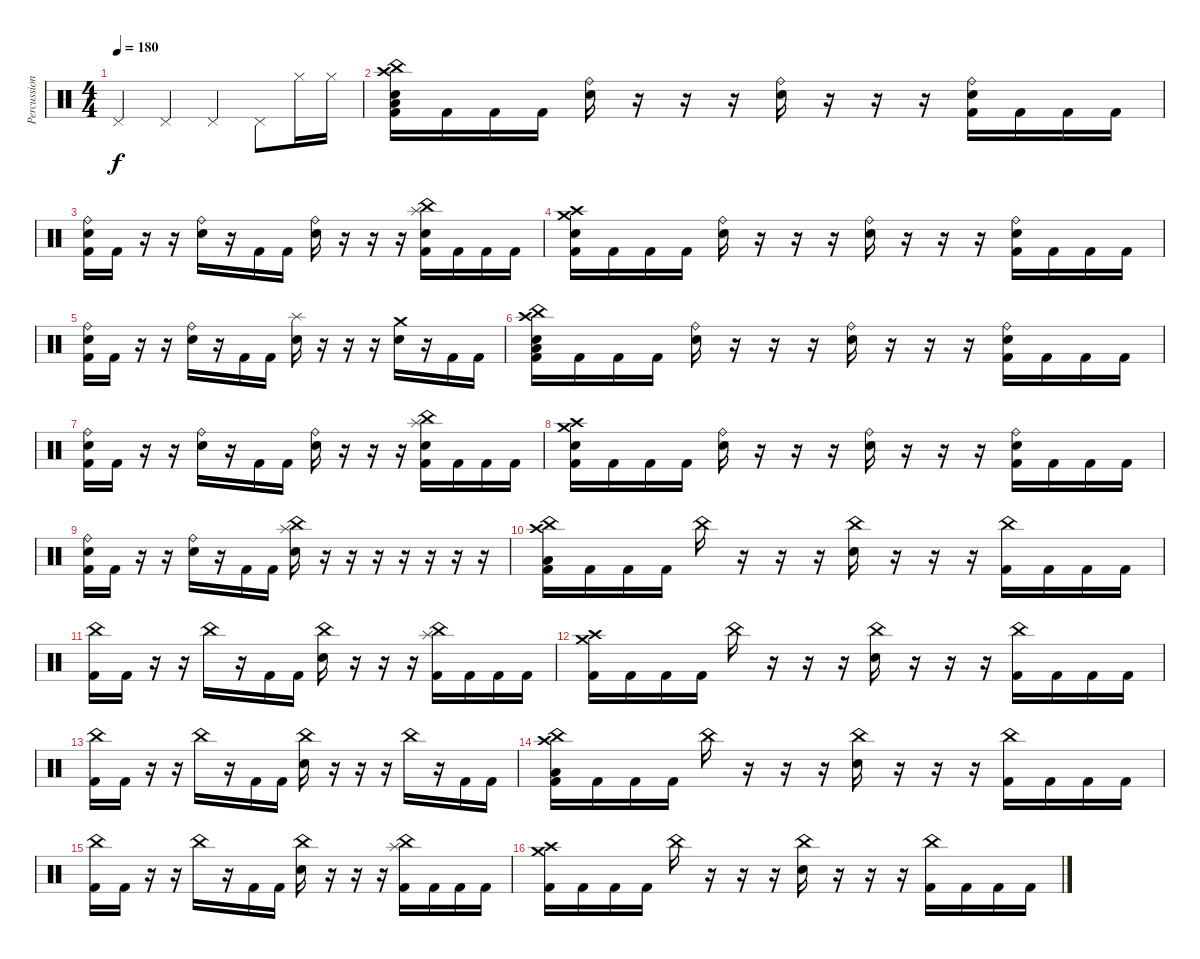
\track ("Percussion" "Percussion") {instrument percussion}
\staff {score}
\articulation defaults
\ts (4 4)
\tempo 180
\clef neutral
\ks c "Pedal Hi-Hat (hit)".4{dy f} "Pedal Hi-Hat (hit)".4 "Pedal Hi-Hat (hit)".4 "Pedal Hi-Hat (hit)".8 "Hi-Hat (closed)".16 "Hi-Hat (closed)".16
|
("Crash high (hit)" "China (hit)" "Electric Snare (hit)" "Low Floor Tom (hit)" "Kick (hit) 2").16 "Kick (hit) 2".16 "Kick (hit) 2".16 "Kick (hit) 2".16 ("Ride (bell)" "Electric Snare (hit)").16 r.16 r.16 r.16 ("Ride (bell)" "Electric Snare (hit)").16 r.16 r.16 r.16 ("Ride (bell)" "Electric Snare (hit)" "Kick (hit) 2").16 "Kick (hit) 2".16 "Kick (hit) 2".16 "Kick (hit) 2".16 |
("Ride (bell)" "Electric Snare (hit)" "Kick (hit) 2").16 "Kick (hit) 2".16 r.16 r.16 ("Ride (bell)" "Electric Snare (hit)").16 r.16 "Kick (hit) 2".16 "Kick (hit) 2".16 ("Ride (bell)" "Electric Snare (hit)").16 r.16 r.16 r.16 ("Splash (hit)" "China (hit)" "Electric Snare (hit)" "Kick (hit) 2").16 "Kick (hit) 2".16 "Kick (hit) 2".16 "Kick (hit) 2".16 |
("Crash high (hit)" "Crash medium (hit)" "Electric Snare (hit)" "Kick (hit) 2").16 "Kick (hit) 2".16 "Kick (hit) 2".16 "Kick (hit) 2".16 ("Ride (bell)" "Electric Snare (hit)").16 r.16 r.16 r.16 ("Ride (bell)" "Electric Snare (hit)").16 r.16 r.16 r.16 ("Ride (bell)" "Electric Snare (hit)" "Kick (hit) 2").16 "Kick (hit) 2".16 "Kick (hit) 2".16 "Kick (hit) 2".16 |
("Ride (bell)" "Electric Snare (hit)" "Kick (hit) 2").16 "Kick (hit) 2".16 r.16 r.16 ("Ride (bell)" "Electric Snare (hit)").16 r.16 "Kick (hit) 2".16 "Kick (hit) 2".16 ("Splash (hit)" "Electric Snare (hit)").16 r.16 r.16 r.16 ("Crash medium (hit)" "Electric Snare (hit)").16 r.16 "Kick (hit) 2".16 "Kick (hit) 2".16 |
("Crash high (hit)" "China (hit)" "Electric Snare (hit)" "Low Floor Tom (hit)" "Kick (hit) 2").16 "Kick (hit) 2".16 "Kick (hit) 2".16 "Kick (hit) 2".16 ("Ride (bell)" "Electric Snare (hit)").16 r.16 r.16 r.16 ("Ride (bell)" "Electric Snare (hit)").16 r.16 r.16 r.16 ("Ride (bell)" "Electric Snare (hit)" "Kick (hit) 2").16 "Kick (hit) 2".16 "Kick (hit) 2".16 "Kick (hit) 2".16 |
("Ride (bell)" "Electric Snare (hit)" "Kick (hit) 2").16 "Kick (hit) 2".16 r.16 r.16 ("Ride (bell)" "Electric Snare (hit)").16 r.16 "Kick (hit) 2".16 "Kick (hit) 2".16 ("Ride (bell)" "Electric Snare (hit)").16 r.16 r.16 r.16 ("Splash (hit)" "China (hit)" "Electric Snare (hit)" "Kick (hit) 2").16 "Kick (hit) 2".16 "Kick (hit) 2".16 "Kick (hit) 2".16 |
("Crash high (hit)" "Crash medium (hit)" "Electric Snare (hit)" "Kick (hit) 2").16 "Kick (hit) 2".16 "Kick (hit) 2".16 "Kick (hit) 2".16 ("Ride (bell)" "Electric Snare (hit)").16 r.16 r.16 r.16 ("Ride (bell)" "Electric Snare (hit)").16 r.16 r.16 r.16 ("Ride (bell)" "Electric Snare (hit)" "Kick (hit) 2").16 "Kick (hit) 2".16 "Kick (hit) 2".16 "Kick (hit) 2".16 |
("Ride (bell)" "Electric Snare (hit)" "Kick (hit) 2").16 "Kick (hit) 2".16 r.16 r.16 ("Ride (bell)" "Electric Snare (hit)").16 r.16 "Kick (hit) 2".16 "Kick (hit) 2".16 ("Splash (hit)" "China (hit)" "Electric Snare (hit)").16 r.16 r.16 r.16 r.16 r.16 r.16 r.16 |
("Crash high (hit)" "China (hit)" "Low Floor Tom (hit)" "Kick (hit) 2").16 "Kick (hit) 2".16 "Kick (hit) 2".16 "Kick (hit) 2".16 "China (hit)".16 r.16 r.16 r.16 ("China (hit)" "Electric Snare (hit)").16 r.16 r.16 r.16 ("China (hit)" "Kick (hit) 2").16 "Kick (hit) 2".16 "Kick (hit) 2".16 "Kick (hit) 2".16 |
("China (hit)" "Kick (hit) 2").16 "Kick (hit) 2".16 r.16 r.16 "China (hit)".16 r.16 "Kick (hit) 2".16 "Kick (hit) 2".16 ("China (hit)" "Electric Snare (hit)").16 r.16 r.16 r.16 ("Splash (hit)" "China (hit)" "Kick (hit) 2").16 "Kick (hit) 2".16 "Kick (hit) 2".16 "Kick (hit) 2".16 |
("Crash high (hit)" "Crash medium (hit)" "Kick (hit) 2").16 "Kick (hit) 2".16 "Kick (hit) 2".16 "Kick (hit) 2".16 "China (hit)".16 r.16 r.16 r.16 ("China (hit)" "Electric Snare (hit)").16 r.16 r.16 r.16 ("China (hit)" "Kick (hit) 2").16 "Kick (hit) 2".16 "Kick (hit) 2".16 "Kick (hit) 2".16 |
("China (hit)" "Kick (hit) 2").16 "Kick (hit) 2".16 r.16 r.16 "China (hit)".16 r.16 "Kick (hit) 2".16 "Kick (hit) 2".16 ("China (hit)" "Electric Snare (hit)").16 r.16 r.16 r.16 "China (hit)".16 r.16 "Kick (hit) 2".16 "Kick (hit) 2".16 |
("Crash high (hit)" "China (hit)" "Low Floor Tom (hit)" "Kick (hit) 2").16 "Kick (hit) 2".16 "Kick (hit) 2".16 "Kick (hit) 2".16 "China (hit)".16 r.16 r.16 r.16 ("China (hit)" "Electric Snare (hit)").16 r.16 r.16 r.16 ("China (hit)" "Kick (hit) 2").16 "Kick (hit) 2".16 "Kick (hit) 2".16 "Kick (hit) 2".16 |
("China (hit)" "Kick (hit) 2").16 "Kick (hit) 2".16 r.16 r.16 "China (hit)".16 r.16 "Kick (hit) 2".16 "Kick (hit) 2".16 ("China (hit)" "Electric Snare (hit)").16 r.16 r.16 r.16 ("Splash (hit)" "China (hit)" "Kick (hit) 2").16 "Kick (hit) 2".16 "Kick (hit) 2".16 "Kick (hit) 2".16 |
("Crash high (hit)" "Crash medium (hit)" "Kick (hit) 2").16 "Kick (hit) 2".16 "Kick (hit) 2".16 "Kick (hit) 2".16 "China (hit)".16 r.16 r.16 r.16 ("China (hit)" "Electric Snare (hit)").16 r.16 r.16 r.16 ("China (hit)" "Kick (hit) 2").16 "Kick (hit) 2".16 "Kick (hit) 2".16 "Kick (hit) 2".16
